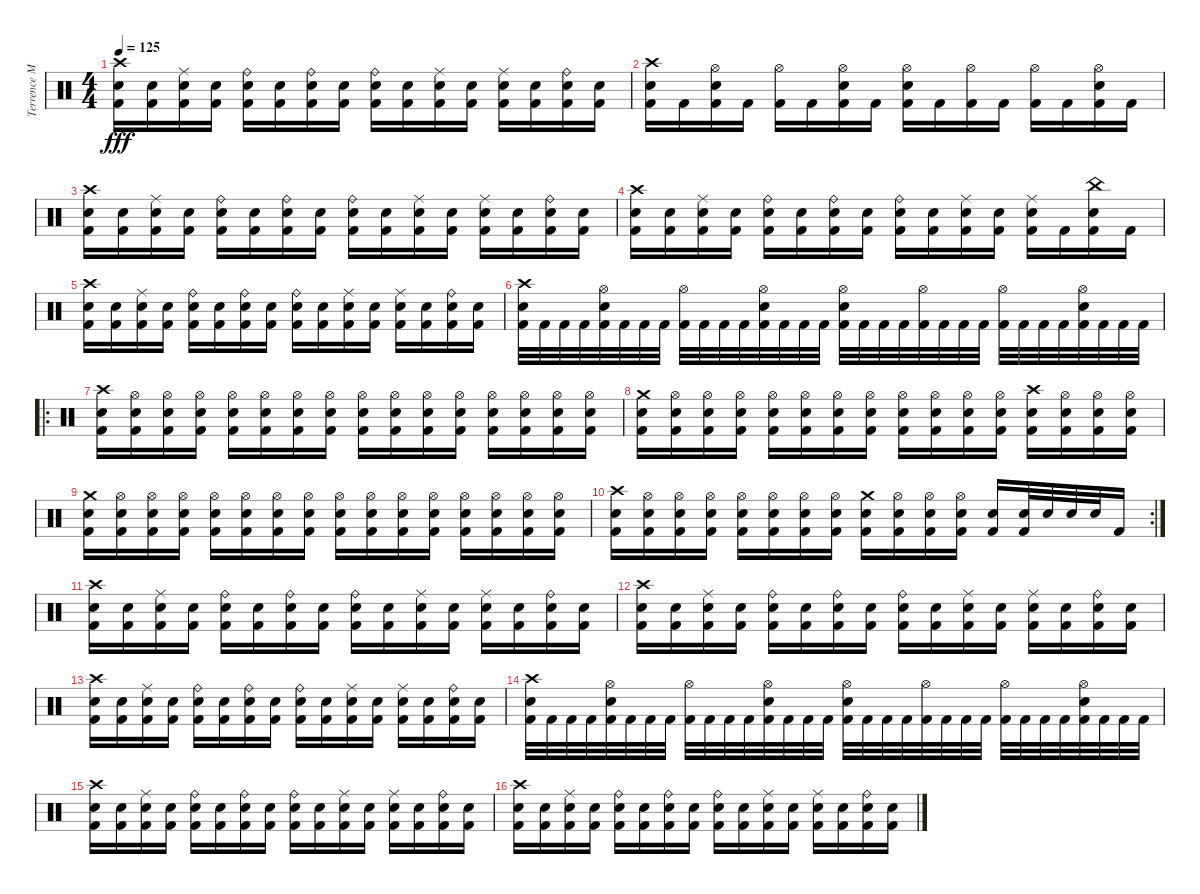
\track ("Terrence Manauis" "Terrence M") {instrument percussion}
\staff {score}
\articulation defaults
\ts (4 4)
\tempo 125
\clef neutral
\ks c
("Crash high (hit)" "Snare (hit) 2" "Kick (hit) 2").16{dy fff} ("Snare (hit) 2" "Kick (hit) 2").16 ("Ride (middle)" "Snare (hit) 2" "Kick (hit) 2").16 ("Snare (hit) 2" "Kick (hit) 2").16 ("Ride (bell)" "Snare (hit) 2" "Kick (hit) 2").16 ("Snare (hit) 2" "Kick (hit) 2").16 ("Ride (bell)" "Snare (hit) 2" "Kick (hit) 2").16 ("Snare (hit) 2" "Kick (hit) 2").16 ("Ride (bell)" "Snare (hit) 2" "Kick (hit) 2").16 ("Snare (hit) 2" "Kick (hit) 2").16 ("Ride (middle)" "Snare (hit) 2" "Kick (hit) 2").16 ("Snare (hit) 2" "Kick (hit) 2").16 ("Ride (middle)" "Snare (hit) 2" "Kick (hit) 2").16 ("Snare (hit) 2" "Kick (hit) 2").16 ("Ride (bell)" "Snare (hit) 2" "Kick (hit) 2").16 ("Snare (hit) 2" "Kick (hit) 2").16 |
("Crash high (hit)" "Snare (hit) 2" "Kick (hit) 2").16 "Kick (hit) 2".16 ("Hi-Hat (open)" "Snare (hit) 2" "Kick (hit) 2").16 "Kick (hit) 2".16 ("Hi-Hat (open)" "Kick (hit) 2").16 "Kick (hit) 2".16 ("Hi-Hat (open)" "Snare (hit) 2" "Kick (hit) 2").16 "Kick (hit) 2".16 ("Hi-Hat (open)" "Snare (hit) 2" "Kick (hit) 2").16 "Kick (hit) 2".16 ("Hi-Hat (open)" "Kick (hit) 2").16 "Kick (hit) 2".16 ("Hi-Hat (open)" "Kick (hit) 2").16 "Kick (hit) 2".16 ("Hi-Hat (open)" "Snare (hit) 2" "Kick (hit) 2").16 "Kick (hit) 2".16 |
("Crash high (hit)" "Snare (hit) 2" "Kick (hit) 2").16 ("Snare (hit) 2" "Kick (hit) 2").16 ("Ride (middle)" "Snare (hit) 2" "Kick (hit) 2").16 ("Snare (hit) 2" "Kick (hit) 2").16 ("Ride (bell)" "Snare (hit) 2" "Kick (hit) 2").16 ("Snare (hit) 2" "Kick (hit) 2").16 ("Ride (bell)" "Snare (hit) 2" "Kick (hit) 2").16 ("Snare (hit) 2" "Kick (hit) 2").16 ("Ride (bell)" "Snare (hit) 2" "Kick (hit) 2").16 ("Snare (hit) 2" "Kick (hit) 2").16 ("Ride (middle)" "Snare (hit) 2" "Kick (hit) 2").16 ("Snare (hit) 2" "Kick (hit) 2").16 ("Ride (middle)" "Snare (hit) 2" "Kick (hit) 2").16 ("Snare (hit) 2" "Kick (hit) 2").16 ("Ride (bell)" "Snare (hit) 2" "Kick (hit) 2").16 ("Snare (hit) 2" "Kick (hit) 2").16 |
("Crash high (hit)" "Snare (hit) 2" "Kick (hit) 2").16 ("Snare (hit) 2" "Kick (hit) 2").16 ("Ride (middle)" "Snare (hit) 2" "Kick (hit) 2").16 ("Snare (hit) 2" "Kick (hit) 2").16 ("Ride (bell)" "Snare (hit) 2" "Kick (hit) 2").16 ("Snare (hit) 2" "Kick (hit) 2").16 ("Ride (bell)" "Snare (hit) 2" "Kick (hit) 2").16 ("Snare (hit) 2" "Kick (hit) 2").16 ("Ride (bell)" "Snare (hit) 2" "Kick (hit) 2").16 ("Snare (hit) 2" "Kick (hit) 2").16 ("Ride (middle)" "Snare (hit) 2" "Kick (hit) 2").16 ("Snare (hit) 2" "Kick (hit) 2").16 ("Ride (middle)" "Snare (hit) 2" "Kick (hit) 2").16 "Kick (hit) 2".16 ("China (hit)" "Snare (hit) 2" "Kick (hit) 2").16 "Kick (hit) 2".16 |
("Crash high (hit)" "Snare (hit) 2" "Kick (hit) 2").16 ("Snare (hit) 2" "Kick (hit) 2").16 ("Ride (middle)" "Snare (hit) 2" "Kick (hit) 2").16 ("Snare (hit) 2" "Kick (hit) 2").16 ("Ride (bell)" "Snare (hit) 2" "Kick (hit) 2").16 ("Snare (hit) 2" "Kick (hit) 2").16 ("Ride (bell)" "Snare (hit) 2" "Kick (hit) 2").16 ("Snare (hit) 2" "Kick (hit) 2").16 ("Ride (bell)" "Snare (hit) 2" "Kick (hit) 2").16 ("Snare (hit) 2" "Kick (hit) 2").16 ("Ride (middle)" "Snare (hit) 2" "Kick (hit) 2").16 ("Snare (hit) 2" "Kick (hit) 2").16 ("Ride (middle)" "Snare (hit) 2" "Kick (hit) 2").16 ("Snare (hit) 2" "Kick (hit) 2").16 ("Ride (bell)" "Snare (hit) 2" "Kick (hit) 2").16 ("Snare (hit) 2" "Kick (hit) 2").16 |
("Crash high (hit)" "Snare (hit) 2" "Kick (hit) 2").32 "Kick (hit) 2".32 "Kick (hit) 2".32 "Kick (hit) 2".32 ("Hi-Hat (open)" "Snare (hit) 2" "Kick (hit) 2").32 "Kick (hit) 2".32 "Kick (hit) 2".32 "Kick (hit) 2".32 ("Hi-Hat (open)" "Kick (hit) 2").32 "Kick (hit) 2".32 "Kick (hit) 2".32 "Kick (hit) 2".32 ("Hi-Hat (open)" "Snare (hit) 2" "Kick (hit) 2").32 "Kick (hit) 2".32 "Kick (hit) 2".32 "Kick (hit) 2".32 ("Hi-Hat (open)" "Snare (hit) 2" "Kick (hit) 2").32 "Kick (hit) 2".32 "Kick (hit) 2".32 "Kick (hit) 2".32 ("Hi-Hat (open)" "Kick (hit) 2").32 "Kick (hit) 2".32 "Kick (hit) 2".32 "Kick (hit) 2".32 ("Hi-Hat (open)" "Kick (hit) 2").32 "Kick (hit) 2".32 "Kick (hit) 2".32 "Kick (hit) 2".32 ("Hi-Hat (open)" "Snare (hit) 2" "Kick (hit) 2").32 "Kick (hit) 2".32 "Kick (hit) 2".32 "Kick (hit) 2".32 |
\ro
("Crash high (hit)" "Snare (hit) 2" "Kick (hit) 2").16 ("Hi-Hat (open)" "Snare (hit) 2" "Kick (hit) 2").16 ("Hi-Hat (open)" "Snare (hit) 2" "Kick (hit) 2").16 ("Hi-Hat (open)" "Snare (hit) 2" "Kick (hit) 2").16 ("Hi-Hat (open)" "Snare (hit) 2" "Kick (hit) 2").16 ("Hi-Hat (open)" "Snare (hit) 2" "Kick (hit) 2").16 ("Hi-Hat (open)" "Snare (hit) 2" "Kick (hit) 2").16 ("Hi-Hat (open)" "Snare (hit) 2" "Kick (hit) 2").16 ("Hi-Hat (open)" "Snare (hit) 2" "Kick (hit) 2").16 ("Hi-Hat (open)" "Snare (hit) 2" "Kick (hit) 2").16 ("Hi-Hat (open)" "Snare (hit) 2" "Kick (hit) 2").16 ("Hi-Hat (open)" "Snare (hit) 2" "Kick (hit) 2").16 ("Hi-Hat (open)" "Snare (hit) 2" "Kick (hit) 2").16 ("Hi-Hat (open)" "Snare (hit) 2" "Kick (hit) 2").16 ("Hi-Hat (open)" "Snare (hit) 2" "Kick (hit) 2").16 ("Hi-Hat (open)" "Snare (hit) 2" "Kick (hit) 2").16 |
("Crash medium (hit)" "Snare (hit) 2" "Kick (hit) 2").16 ("Hi-Hat (open)" "Snare (hit) 2" "Kick (hit) 2").16 ("Hi-Hat (open)" "Snare (hit) 2" "Kick (hit) 2").16 ("Hi-Hat (open)" "Snare (hit) 2" "Kick (hit) 2").16 ("Hi-Hat (open)" "Snare (hit) 2" "Kick (hit) 2").16 ("Hi-Hat (open)" "Snare (hit) 2" "Kick (hit) 2").16 ("Hi-Hat (open)" "Snare (hit) 2" "Kick (hit) 2").16 ("Hi-Hat (open)" "Snare (hit) 2" "Kick (hit) 2").16 ("Hi-Hat (open)" "Snare (hit) 2" "Kick (hit) 2").16 ("Hi-Hat (open)" "Snare (hit) 2" "Kick (hit) 2").16 ("Hi-Hat (open)" "Snare (hit) 2" "Kick (hit) 2").16 ("Hi-Hat (open)" "Snare (hit) 2" "Kick (hit) 2").16 ("Crash high (hit)" "Snare (hit) 2" "Kick (hit) 2").16 ("Hi-Hat (open)" "Snare (hit) 2" "Kick (hit) 2").16 ("Hi-Hat (open)" "Snare (hit) 2" "Kick (hit) 2").16 ("Hi-Hat (open)" "Snare (hit) 2" "Kick (hit) 2").16 |
("Crash medium (hit)" "Snare (hit) 2" "Kick (hit) 2").16 ("Hi-Hat (open)" "Snare (hit) 2" "Kick (hit) 2").16 ("Hi-Hat (open)" "Snare (hit) 2" "Kick (hit) 2").16 ("Hi-Hat (open)" "Snare (hit) 2" "Kick (hit) 2").16 ("Hi-Hat (open)" "Snare (hit) 2" "Kick (hit) 2").16 ("Hi-Hat (open)" "Snare (hit) 2" "Kick (hit) 2").16 ("Hi-Hat (open)" "Snare (hit) 2" "Kick (hit) 2").16 ("Hi-Hat (open)" "Snare (hit) 2" "Kick (hit) 2").16 ("Hi-Hat (open)" "Snare (hit) 2" "Kick (hit) 2").16 ("Hi-Hat (open)" "Snare (hit) 2" "Kick (hit) 2").16 ("Hi-Hat (open)" "Snare (hit) 2" "Kick (hit) 2").16 ("Hi-Hat (open)" "Snare (hit) 2" "Kick (hit) 2").16 ("Hi-Hat (open)" "Snare (hit) 2" "Kick (hit) 2").16 ("Hi-Hat (open)" "Snare (hit) 2" "Kick (hit) 2").16 ("Hi-Hat (open)" "Snare (hit) 2" "Kick (hit) 2").16 ("Hi-Hat (open)" "Snare (hit) 2" "Kick (hit) 2").16 |
\rc 2
("Crash high (hit)" "Snare (hit) 2" "Kick (hit) 2").16 ("Hi-Hat (open)" "Snare (hit) 2" "Kick (hit) 2").16 ("Hi-Hat (open)" "Snare (hit) 2" "Kick (hit) 2").16 ("Hi-Hat (open)" "Snare (hit) 2" "Kick (hit) 2").16 ("Hi-Hat (open)" "Snare (hit) 2" "Kick (hit) 2").16 ("Hi-Hat (open)" "Snare (hit) 2" "Kick (hit) 2").16 ("Hi-Hat (open)" "Snare (hit) 2" "Kick (hit) 2").16 ("Hi-Hat (open)" "Snare (hit) 2" "Kick (hit) 2").16 ("Crash medium (hit)" "Snare (hit) 2" "Kick (hit) 2").16 ("Hi-Hat (open)" "Snare (hit) 2" "Kick (hit) 2").16 ("Hi-Hat (open)" "Snare (hit) 2" "Kick (hit) 2").16 ("Hi-Hat (open)" "Snare (hit) 2" "Kick (hit) 2").16 ("Snare (hit) 2" "Kick (hit) 2").16 ("Snare (hit) 2" "Kick (hit) 2").32 "Snare (hit) 2".32 "Snare (hit) 2".32 "Snare (hit) 2".32 "Kick (hit) 2".16 |
("Crash high (hit)" "Snare (hit) 2" "Kick (hit) 2").16 ("Snare (hit) 2" "Kick (hit) 2").16 ("Ride (middle)" "Snare (hit) 2" "Kick (hit) 2").16 ("Snare (hit) 2" "Kick (hit) 2").16 ("Ride (bell)" "Snare (hit) 2" "Kick (hit) 2").16 ("Snare (hit) 2" "Kick (hit) 2").16 ("Ride (bell)" "Snare (hit) 2" "Kick (hit) 2").16 ("Snare (hit) 2" "Kick (hit) 2").16 ("Ride (bell)" "Snare (hit) 2" "Kick (hit) 2").16 ("Snare (hit) 2" "Kick (hit) 2").16 ("Ride (middle)" "Snare (hit) 2" "Kick (hit) 2").16 ("Snare (hit) 2" "Kick (hit) 2").16 ("Ride (middle)" "Snare (hit) 2" "Kick (hit) 2").16 ("Snare (hit) 2" "Kick (hit) 2").16 ("Ride (bell)" "Snare (hit) 2" "Kick (hit) 2").16 ("Snare (hit) 2" "Kick (hit) 2").16 |
("Crash high (hit)" "Snare (hit) 2" "Kick (hit) 2").16 ("Snare (hit) 2" "Kick (hit) 2").16 ("Ride (middle)" "Snare (hit) 2" "Kick (hit) 2").16 ("Snare (hit) 2" "Kick (hit) 2").16 ("Ride (bell)" "Snare (hit) 2" "Kick (hit) 2").16 ("Snare (hit) 2" "Kick (hit) 2").16 ("Ride (bell)" "Snare (hit) 2" "Kick (hit) 2").16 ("Snare (hit) 2" "Kick (hit) 2").16 ("Ride (bell)" "Snare (hit) 2" "Kick (hit) 2").16 ("Snare (hit) 2" "Kick (hit) 2").16 ("Ride (middle)" "Snare (hit) 2" "Kick (hit) 2").16 ("Snare (hit) 2" "Kick (hit) 2").16 ("Ride (middle)" "Snare (hit) 2" "Kick (hit) 2").16 ("Snare (hit) 2" "Kick (hit) 2").16 ("Ride (bell)" "Snare (hit) 2" "Kick (hit) 2").16 ("Snare (hit) 2" "Kick (hit) 2").16 |
("Crash high (hit)" "Snare (hit) 2" "Kick (hit) 2").16 ("Snare (hit) 2" "Kick (hit) 2").16 ("Ride (middle)" "Snare (hit) 2" "Kick (hit) 2").16 ("Snare (hit) 2" "Kick (hit) 2").16 ("Ride (bell)" "Snare (hit) 2" "Kick (hit) 2").16 ("Snare (hit) 2" "Kick (hit) 2").16 ("Ride (bell)" "Snare (hit) 2" "Kick (hit) 2").16 ("Snare (hit) 2" "Kick (hit) 2").16 ("Ride (bell)" "Snare (hit) 2" "Kick (hit) 2").16 ("Snare (hit) 2" "Kick (hit) 2").16 ("Ride (middle)" "Snare (hit) 2" "Kick (hit) 2").16 ("Snare (hit) 2" "Kick (hit) 2").16 ("Ride (middle)" "Snare (hit) 2" "Kick (hit) 2").16 ("Snare (hit) 2" "Kick (hit) 2").16 ("Ride (bell)" "Snare (hit) 2" "Kick (hit) 2").16 ("Snare (hit) 2" "Kick (hit) 2").16 |
("Crash high (hit)" "Snare (hit) 2" "Kick (hit) 2").32 "Kick (hit) 2".32 "Kick (hit) 2".32 "Kick (hit) 2".32 ("Hi-Hat (open)" "Snare (hit) 2" "Kick (hit) 2").32 "Kick (hit) 2".32 "Kick (hit) 2".32 "Kick (hit) 2".32 ("Hi-Hat (open)" "Kick (hit) 2").32 "Kick (hit) 2".32 "Kick (hit) 2".32 "Kick (hit) 2".32 ("Hi-Hat (open)" "Snare (hit) 2" "Kick (hit) 2").32 "Kick (hit) 2".32 "Kick (hit) 2".32 "Kick (hit) 2".32 ("Hi-Hat (open)" "Snare (hit) 2" "Kick (hit) 2").32 "Kick (hit) 2".32 "Kick (hit) 2".32 "Kick (hit) 2".32 ("Hi-Hat (open)" "Kick (hit) 2").32 "Kick (hit) 2".32 "Kick (hit) 2".32 "Kick (hit) 2".32 ("Hi-Hat (open)" "Kick (hit) 2").32 "Kick (hit) 2".32 "Kick (hit) 2".32 "Kick (hit) 2".32 ("Hi-Hat (open)" "Snare (hit) 2" "Kick (hit) 2").32 "Kick (hit) 2".32 "Kick (hit) 2".32 "Kick (hit) 2".32 |
("Crash high (hit)" "Snare (hit) 2" "Kick (hit) 2").16 ("Snare (hit) 2" "Kick (hit) 2").16 ("Ride (middle)" "Snare (hit) 2" "Kick (hit) 2").16 ("Snare (hit) 2" "Kick (hit) 2").16 ("Ride (bell)" "Snare (hit) 2" "Kick (hit) 2").16 ("Snare (hit) 2" "Kick (hit) 2").16 ("Ride (bell)" "Snare (hit) 2" "Kick (hit) 2").16 ("Snare (hit) 2" "Kick (hit) 2").16 ("Ride (bell)" "Snare (hit) 2" "Kick (hit) 2").16 ("Snare (hit) 2" "Kick (hit) 2").16 ("Ride (middle)" "Snare (hit) 2" "Kick (hit) 2").16 ("Snare (hit) 2" "Kick (hit) 2").16 ("Ride (middle)" "Snare (hit) 2" "Kick (hit) 2").16 ("Snare (hit) 2" "Kick (hit) 2").16 ("Ride (bell)" "Snare (hit) 2" "Kick (hit) 2").16 ("Snare (hit) 2" "Kick (hit) 2").16 |
("Crash high (hit)" "Snare (hit) 2" "Kick (hit) 2").16 ("Snare (hit) 2" "Kick (hit) 2").16 ("Ride (middle)" "Snare (hit) 2" "Kick (hit) 2").16 ("Snare (hit) 2" "Kick (hit) 2").16 ("Ride (bell)" "Snare (hit) 2" "Kick (hit) 2").16 ("Snare (hit) 2" "Kick (hit) 2").16 ("Ride (bell)" "Snare (hit) 2" "Kick (hit) 2").16 ("Snare (hit) 2" "Kick (hit) 2").16 ("Ride (bell)" "Snare (hit) 2" "Kick (hit) 2").16 ("Snare (hit) 2" "Kick (hit) 2").16 ("Ride (middle)" "Snare (hit) 2" "Kick (hit) 2").16 ("Snare (hit) 2" "Kick (hit) 2").16 ("Ride (middle)" "Snare (hit) 2" "Kick (hit) 2").16 ("Snare (hit) 2" "Kick (hit) 2").16 ("Ride (bell)" "Snare (hit) 2" "Kick (hit) 2").16 ("Snare (hit) 2" "Kick (hit) 2").16
